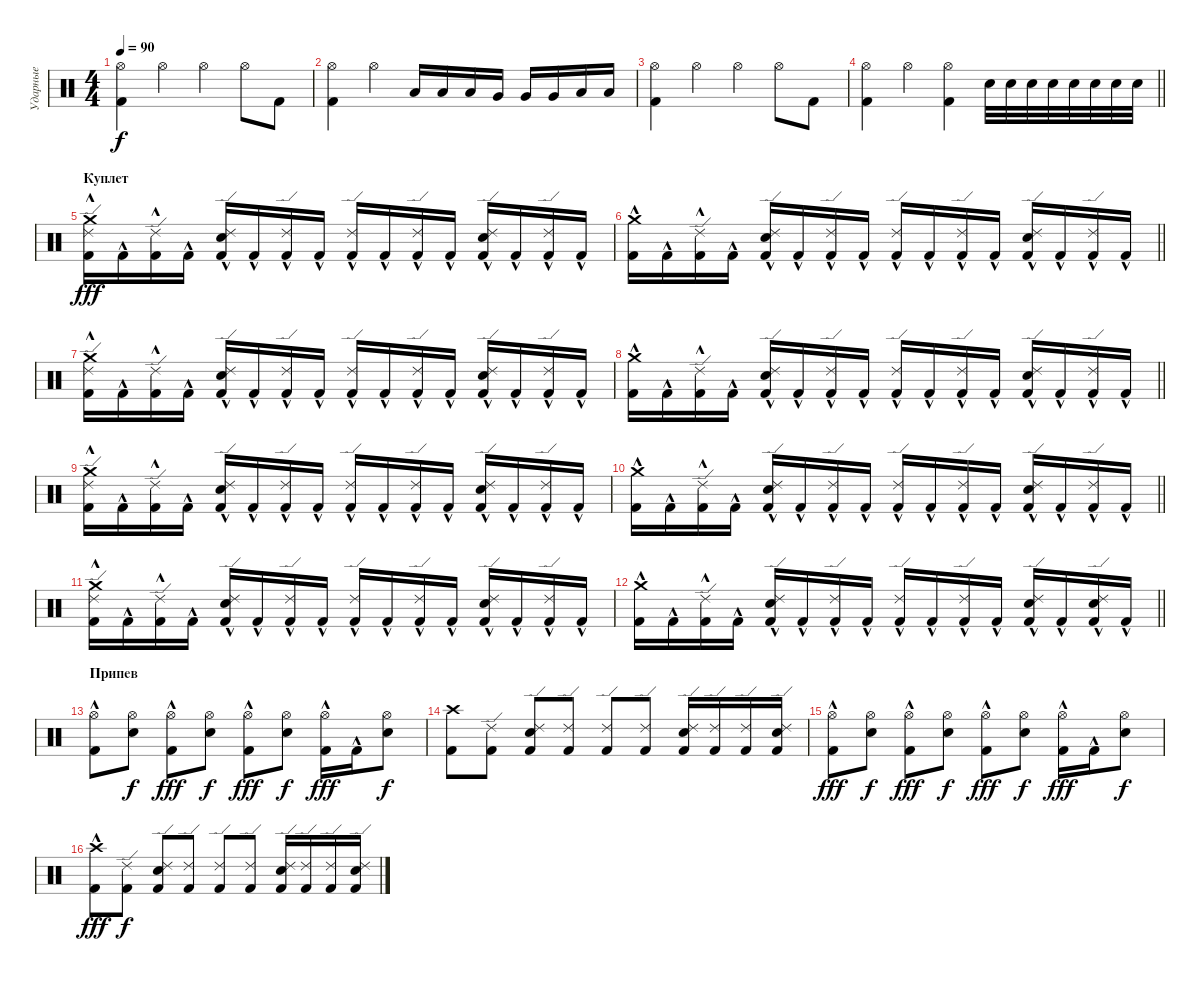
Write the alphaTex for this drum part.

\track ("Ударные" "Ударные") {instrument percussion}
\staff {score}
\articulation defaults
\ts (4 4)
\tempo 90
\clef neutral
\ks c
("Hi-Hat (open)" "Kick (hit) 2").4{dy f} "Hi-Hat (open)".4 "Hi-Hat (open)".4 "Hi-Hat (open)".8 "Kick (hit) 2".8 |
("Hi-Hat (open)" "Kick (hit) 2").4 "Hi-Hat (open)".4 "Low Floor Tom (hit)".16 "Low Floor Tom (hit)".16 "Low Floor Tom (hit)".16 "Very Low Tom (hit)".16 "Very Low Tom (hit)".16 "Very Low Tom (hit)".16 "Low Tom (hit)".16 "Low Tom (hit)".16 |
("Hi-Hat (open)" "Kick (hit) 2").4 "Hi-Hat (open)".4 "Hi-Hat (open)".4 "Hi-Hat (open)".8 "Kick (hit) 2".8 |
\barLineRight lightlight
("Hi-Hat (open)" "Kick (hit) 2").4 "Hi-Hat (open)".4 ("Hi-Hat (open)" "Kick (hit) 2").4 "Snare (hit) 2".32 "Snare (hit) 2".32 "Snare (hit) 2".32 "Snare (hit) 2".32 "Snare (hit) 2".32 "Snare (hit) 2".32 "Snare (hit) 2".32 "Snare (hit) 2".32 |
\section ("" "Куплет")
("Ride (edge) 2" "Crash medium (hit)" "Kick (hit) 2"{hac}).16{dy fff} "Kick (hit) 2"{hac}.16 ("Ride (edge) 2" "Kick (hit) 2"{hac}).16 "Kick (hit) 2"{hac}.16 ("Ride (edge) 2" "Snare (hit) 2" "Kick (hit) 2"{hac}).16 "Kick (hit) 2"{hac}.16 ("Ride (edge) 2" "Kick (hit) 2"{hac}).16 "Kick (hit) 2"{hac}.16 ("Ride (edge) 2" "Kick (hit) 2"{hac}).16 "Kick (hit) 2"{hac}.16 ("Ride (edge) 2" "Kick (hit) 2"{hac}).16 "Kick (hit) 2"{hac}.16 ("Ride (edge) 2" "Snare (hit) 2" "Kick (hit) 2"{hac}).16 "Kick (hit) 2"{hac}.16 ("Ride (edge) 2" "Kick (hit) 2"{hac}).16 "Kick (hit) 2"{hac}.16 |
\barLineRight lightlight
("Crash medium (hit)" "Kick (hit) 2"{hac}).16 "Kick (hit) 2"{hac}.16 ("Ride (edge) 2" "Kick (hit) 2"{hac}).16 "Kick (hit) 2"{hac}.16 ("Ride (edge) 2" "Snare (hit) 2" "Kick (hit) 2"{hac}).16 "Kick (hit) 2"{hac}.16 ("Ride (edge) 2" "Kick (hit) 2"{hac}).16 "Kick (hit) 2"{hac}.16 ("Ride (edge) 2" "Kick (hit) 2"{hac}).16 "Kick (hit) 2"{hac}.16 ("Ride (edge) 2" "Kick (hit) 2"{hac}).16 "Kick (hit) 2"{hac}.16 ("Ride (edge) 2" "Snare (hit) 2" "Kick (hit) 2"{hac}).16 "Kick (hit) 2"{hac}.16 ("Ride (edge) 2" "Kick (hit) 2"{hac}).16 "Kick (hit) 2"{hac}.16 |
("Ride (edge) 2" "Crash medium (hit)" "Kick (hit) 2"{hac}).16 "Kick (hit) 2"{hac}.16 ("Ride (edge) 2" "Kick (hit) 2"{hac}).16 "Kick (hit) 2"{hac}.16 ("Ride (edge) 2" "Snare (hit) 2" "Kick (hit) 2"{hac}).16 "Kick (hit) 2"{hac}.16 ("Ride (edge) 2" "Kick (hit) 2"{hac}).16 "Kick (hit) 2"{hac}.16 ("Ride (edge) 2" "Kick (hit) 2"{hac}).16 "Kick (hit) 2"{hac}.16 ("Ride (edge) 2" "Kick (hit) 2"{hac}).16 "Kick (hit) 2"{hac}.16 ("Ride (edge) 2" "Snare (hit) 2" "Kick (hit) 2"{hac}).16 "Kick (hit) 2"{hac}.16 ("Ride (edge) 2" "Kick (hit) 2"{hac}).16 "Kick (hit) 2"{hac}.16 |
\barLineRight lightlight
("Crash medium (hit)" "Kick (hit) 2"{hac}).16 "Kick (hit) 2"{hac}.16 ("Ride (edge) 2" "Kick (hit) 2"{hac}).16 "Kick (hit) 2"{hac}.16 ("Ride (edge) 2" "Snare (hit) 2" "Kick (hit) 2"{hac}).16 "Kick (hit) 2"{hac}.16 ("Ride (edge) 2" "Kick (hit) 2"{hac}).16 "Kick (hit) 2"{hac}.16 ("Ride (edge) 2" "Kick (hit) 2"{hac}).16 "Kick (hit) 2"{hac}.16 ("Ride (edge) 2" "Kick (hit) 2"{hac}).16 "Kick (hit) 2"{hac}.16 ("Ride (edge) 2" "Snare (hit) 2" "Kick (hit) 2"{hac}).16 "Kick (hit) 2"{hac}.16 ("Ride (edge) 2" "Kick (hit) 2"{hac}).16 "Kick (hit) 2"{hac}.16 |
("Ride (edge) 2" "Crash medium (hit)" "Kick (hit) 2"{hac}).16 "Kick (hit) 2"{hac}.16 ("Ride (edge) 2" "Kick (hit) 2"{hac}).16 "Kick (hit) 2"{hac}.16 ("Ride (edge) 2" "Snare (hit) 2" "Kick (hit) 2"{hac}).16 "Kick (hit) 2"{hac}.16 ("Ride (edge) 2" "Kick (hit) 2"{hac}).16 "Kick (hit) 2"{hac}.16 ("Ride (edge) 2" "Kick (hit) 2"{hac}).16 "Kick (hit) 2"{hac}.16 ("Ride (edge) 2" "Kick (hit) 2"{hac}).16 "Kick (hit) 2"{hac}.16 ("Ride (edge) 2" "Snare (hit) 2" "Kick (hit) 2"{hac}).16 "Kick (hit) 2"{hac}.16 ("Ride (edge) 2" "Kick (hit) 2"{hac}).16 "Kick (hit) 2"{hac}.16 |
\barLineRight lightlight
("Crash medium (hit)" "Kick (hit) 2"{hac}).16 "Kick (hit) 2"{hac}.16 ("Ride (edge) 2" "Kick (hit) 2"{hac}).16 "Kick (hit) 2"{hac}.16 ("Ride (edge) 2" "Snare (hit) 2" "Kick (hit) 2"{hac}).16 "Kick (hit) 2"{hac}.16 ("Ride (edge) 2" "Kick (hit) 2"{hac}).16 "Kick (hit) 2"{hac}.16 ("Ride (edge) 2" "Kick (hit) 2"{hac}).16 "Kick (hit) 2"{hac}.16 ("Ride (edge) 2" "Kick (hit) 2"{hac}).16 "Kick (hit) 2"{hac}.16 ("Ride (edge) 2" "Snare (hit) 2" "Kick (hit) 2"{hac}).16 "Kick (hit) 2"{hac}.16 ("Ride (edge) 2" "Kick (hit) 2"{hac}).16 "Kick (hit) 2"{hac}.16 |
("Ride (edge) 2" "Crash medium (hit)" "Kick (hit) 2"{hac}).16 "Kick (hit) 2"{hac}.16 ("Ride (edge) 2" "Kick (hit) 2"{hac}).16 "Kick (hit) 2"{hac}.16 ("Ride (edge) 2" "Snare (hit) 2" "Kick (hit) 2"{hac}).16 "Kick (hit) 2"{hac}.16 ("Ride (edge) 2" "Kick (hit) 2"{hac}).16 "Kick (hit) 2"{hac}.16 ("Ride (edge) 2" "Kick (hit) 2"{hac}).16 "Kick (hit) 2"{hac}.16 ("Ride (edge) 2" "Kick (hit) 2"{hac}).16 "Kick (hit) 2"{hac}.16 ("Ride (edge) 2" "Snare (hit) 2" "Kick (hit) 2"{hac}).16 "Kick (hit) 2"{hac}.16 ("Ride (edge) 2" "Kick (hit) 2"{hac}).16 "Kick (hit) 2"{hac}.16 |
\barLineRight lightlight
("Crash medium (hit)" "Kick (hit) 2"{hac}).16 "Kick (hit) 2"{hac}.16 ("Ride (edge) 2" "Kick (hit) 2"{hac}).16 "Kick (hit) 2"{hac}.16 ("Ride (edge) 2" "Snare (hit) 2" "Kick (hit) 2"{hac}).16 "Kick (hit) 2"{hac}.16 ("Ride (edge) 2" "Kick (hit) 2"{hac}).16 "Kick (hit) 2"{hac}.16 ("Ride (edge) 2" "Kick (hit) 2"{hac}).16 "Kick (hit) 2"{hac}.16 ("Ride (edge) 2" "Kick (hit) 2"{hac}).16 "Kick (hit) 2"{hac}.16 ("Ride (edge) 2" "Snare (hit) 2" "Kick (hit) 2"{hac}).16 "Kick (hit) 2"{hac}.16 ("Ride (edge) 2" "Snare (hit) 2" "Kick (hit) 2"{hac}).16 "Kick (hit) 2"{hac}.16 |
\section ("" "Припев")
("Hi-Hat (open)" "Kick (hit) 2"{hac}).8 ("Hi-Hat (open)" "Snare (hit) 2").8{dy f} ("Hi-Hat (open)" "Kick (hit) 2"{hac}).8{dy fff} ("Hi-Hat (open)" "Snare (hit) 2").8{dy f} ("Hi-Hat (open)" "Kick (hit) 2"{hac}).8{dy fff} ("Hi-Hat (open)" "Snare (hit) 2").8{dy f} ("Hi-Hat (open)" "Kick (hit) 2"{hac}).16{dy fff} "Kick (hit) 2"{hac}.16 ("Hi-Hat (open)" "Snare (hit) 2").8{dy f} |
("Crash high (hit)" "Kick (hit) 2").8 ("Ride (edge) 2" "Kick (hit) 2").8 ("Ride (edge) 2" "Snare (hit) 2" "Kick (hit) 2").8 ("Ride (edge) 2" "Kick (hit) 2").8 ("Ride (edge) 2" "Kick (hit) 2").8 ("Ride (edge) 2" "Kick (hit) 2").8 ("Ride (edge) 2" "Snare (hit) 2" "Kick (hit) 2").16 ("Ride (edge) 2" "Kick (hit) 2").16 ("Ride (edge) 2" "Kick (hit) 2").16 ("Ride (edge) 2" "Snare (hit) 2" "Kick (hit) 2").16 |
("Hi-Hat (open)" "Kick (hit) 2"{hac}).8{dy fff} ("Hi-Hat (open)" "Snare (hit) 2").8{dy f} ("Hi-Hat (open)" "Kick (hit) 2"{hac}).8{dy fff} ("Hi-Hat (open)" "Snare (hit) 2").8{dy f} ("Hi-Hat (open)" "Kick (hit) 2"{hac}).8{dy fff} ("Hi-Hat (open)" "Snare (hit) 2").8{dy f} ("Hi-Hat (open)" "Kick (hit) 2"{hac}).16{dy fff} "Kick (hit) 2"{hac}.16 ("Hi-Hat (open)" "Snare (hit) 2").8{dy f} |
("Crash high (hit)" "Kick (hit) 2"{hac}).8{dy fff} ("Ride (edge) 2" "Kick (hit) 2").8{dy f} ("Ride (edge) 2" "Snare (hit) 2" "Kick (hit) 2").8 ("Ride (edge) 2" "Kick (hit) 2").8 ("Ride (edge) 2" "Kick (hit) 2").8 ("Ride (edge) 2" "Kick (hit) 2").8 ("Ride (edge) 2" "Snare (hit) 2" "Kick (hit) 2").16 ("Ride (edge) 2" "Kick (hit) 2").16 ("Ride (edge) 2" "Kick (hit) 2").16 ("Ride (edge) 2" "Snare (hit) 2" "Kick (hit) 2").16
